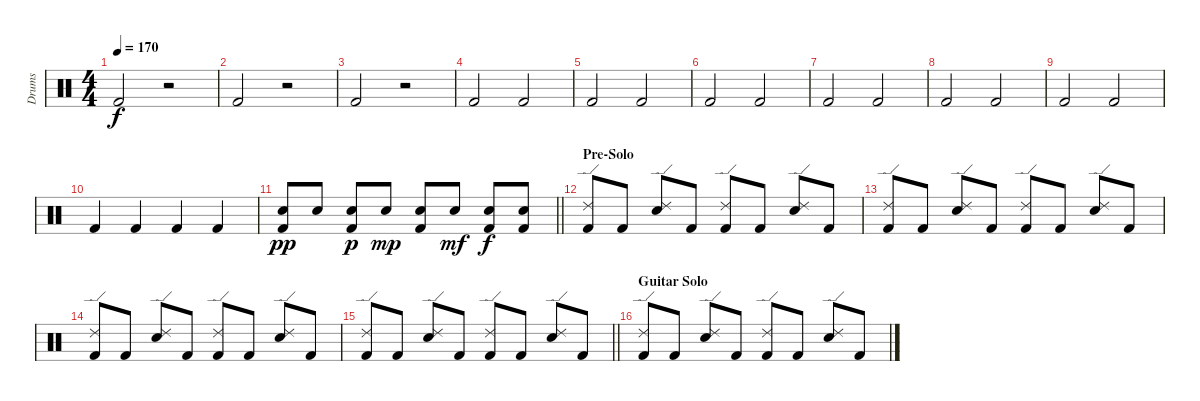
\track ("Drums" "Drums") {instrument percussion}
\staff {score}
\articulation defaults
\ts (4 4)
\tempo 170
\clef neutral
\ks c "Kick (hit) 2".2{dy f}
r.2 |
"Kick (hit) 2".2 r.2 |
"Kick (hit) 2".2 r.2 |
"Kick (hit) 2".2 "Kick (hit) 2".2 |
"Kick (hit) 2".2 "Kick (hit) 2".2 |
"Kick (hit) 2".2 "Kick (hit) 2".2 |
"Kick (hit) 2".2 "Kick (hit) 2".2 |
"Kick (hit) 2".2 "Kick (hit) 2".2 |
"Kick (hit) 2".2 "Kick (hit) 2".2 |
"Kick (hit) 2".4 "Kick (hit) 2".4 "Kick (hit) 2".4 "Kick (hit) 2".4 |
\barLineRight lightlight
("Electric Snare (hit)" "Kick (hit) 2").8{dy pp} "Electric Snare (hit)".8 ("Electric Snare (hit)" "Kick (hit) 2").8{dy p} "Electric Snare (hit)".8{dy mp} ("Electric Snare (hit)" "Kick (hit) 2").8 "Electric Snare (hit)".8{dy mf} ("Electric Snare (hit)" "Kick (hit) 2").8{dy f} ("Electric Snare (hit)" "Kick (hit) 2").8 |
\section ("" "Pre-Solo")
("Ride (edge) 2" "Kick (hit) 2").8 "Kick (hit) 2".8 ("Ride (edge) 2" "Electric Snare (hit)").8 "Kick (hit) 2".8 ("Ride (edge) 2" "Kick (hit) 2").8 "Kick (hit) 2".8 ("Ride (edge) 2" "Electric Snare (hit)").8 "Kick (hit) 2".8 |
("Ride (edge) 2" "Kick (hit) 2").8 "Kick (hit) 2".8 ("Ride (edge) 2" "Electric Snare (hit)").8 "Kick (hit) 2".8 ("Ride (edge) 2" "Kick (hit) 2").8 "Kick (hit) 2".8 ("Ride (edge) 2" "Electric Snare (hit)").8 "Kick (hit) 2".8 |
("Ride (edge) 2" "Kick (hit) 2").8 "Kick (hit) 2".8 ("Ride (edge) 2" "Electric Snare (hit)").8 "Kick (hit) 2".8 ("Ride (edge) 2" "Kick (hit) 2").8 "Kick (hit) 2".8 ("Ride (edge) 2" "Electric Snare (hit)").8 "Kick (hit) 2".8 |
\barLineRight lightlight
("Ride (edge) 2" "Kick (hit) 2").8 "Kick (hit) 2".8 ("Ride (edge) 2" "Electric Snare (hit)").8 "Kick (hit) 2".8 ("Ride (edge) 2" "Kick (hit) 2").8 "Kick (hit) 2".8 ("Ride (edge) 2" "Electric Snare (hit)").8 "Kick (hit) 2".8 |
\section ("" "Guitar Solo")
("Ride (edge) 2" "Kick (hit) 2").8 "Kick (hit) 2".8 ("Ride (edge) 2" "Electric Snare (hit)").8 "Kick (hit) 2".8 ("Ride (edge) 2" "Kick (hit) 2").8 "Kick (hit) 2".8 ("Ride (edge) 2" "Electric Snare (hit)").8 "Kick (hit) 2".8
